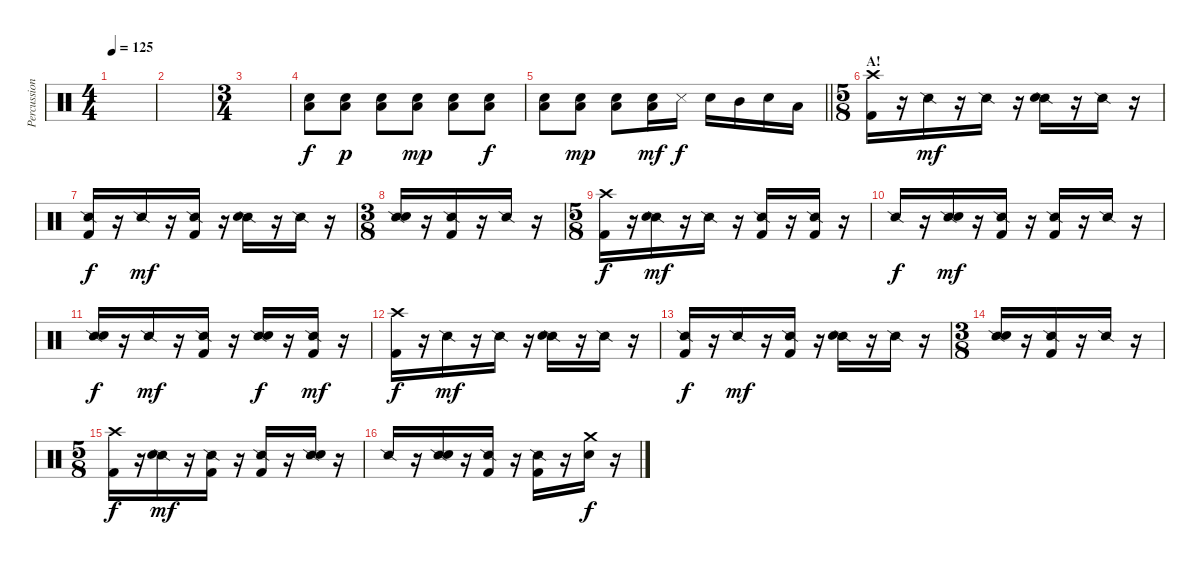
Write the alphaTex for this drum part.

\track ("Percussion" "Percussion") {instrument percussion}
\staff {score}
\articulation defaults
\ts (4 4)
\tempo 125
\clef neutral
\ks c
|
|
\ts (3 4)
|
("Low Tom (hit)" "Snare (hit) 2").8 ("Low Tom (hit)" "Snare (hit) 2").8{dy p} ("Low Tom (hit)" "Snare (hit) 2").8 ("Low Tom (hit)" "Snare (hit) 2").8{dy mp} ("Low Tom (hit)" "Snare (hit) 2").8 ("Low Tom (hit)" "Snare (hit) 2").8{dy f} |
\barLineRight lightlight
("Low Tom (hit)" "Snare (hit) 2").8 ("Low Tom (hit)" "Snare (hit) 2").8{dy mp} ("Low Tom (hit)" "Snare (hit) 2").8 ("Low Tom (hit)" "Snare (hit) 2").16{dy mf} "Metronome (hit)".16{dy f} "Snare (hit) 2".16 "Mid Tom (hit)".16 "Snare (hit) 2".16 "Low Tom (hit)".16 |
\ts (5 8)
\section ("" "A!")
("Crash high (hit)" "Kick (hit) 2").16 r.16 "Snare (side stick) 2".16{dy mf} r.16 "Snare (side stick) 2".16 r.16 ("Snare (side stick) 2" "Snare (hit) 2").16 r.16 "Snare (side stick) 2".16 r.16 |
("Snare (side stick) 2" "Kick (hit) 2").16{dy f} r.16 "Snare (side stick) 2".16{dy mf} r.16 ("Snare (side stick) 2" "Kick (hit) 2").16 r.16 ("Snare (side stick) 2" "Snare (hit) 2").16 r.16 "Snare (side stick) 2".16 r.16 |
\ts (3 8)
("Snare (side stick) 2" "Snare (hit) 2").16 r.16 ("Snare (side stick) 2" "Kick (hit) 2").16 r.16 "Snare (side stick) 2".16 r.16 |
\ts (5 8)
("Crash high (hit)" "Kick (hit) 2").16{dy f} r.16 ("Snare (side stick) 2" "Snare (hit) 2").16{dy mf} r.16 "Snare (side stick) 2".16 r.16 ("Snare (side stick) 2" "Kick (hit) 2").16 r.16 ("Snare (side stick) 2" "Kick (hit) 2").16 r.16 |
"Snare (side stick) 2".16{dy f} r.16 ("Snare (side stick) 2" "Snare (hit) 2").16{dy mf} r.16 ("Snare (side stick) 2" "Kick (hit) 2").16 r.16 ("Snare (side stick) 2" "Kick (hit) 2").16 r.16 "Snare (side stick) 2".16 r.16 |
("Snare (side stick) 2" "Snare (hit) 2").16{dy f} r.16 "Snare (side stick) 2".16{dy mf} r.16 ("Snare (side stick) 2" "Kick (hit) 2").16 r.16 ("Snare (side stick) 2" "Snare (hit) 2").16{dy f} r.16 ("Snare (side stick) 2" "Kick (hit) 2").16{dy mf} r.16 |
("Crash high (hit)" "Kick (hit) 2").16{dy f} r.16 "Snare (side stick) 2".16{dy mf} r.16 "Snare (side stick) 2".16 r.16 ("Snare (side stick) 2" "Snare (hit) 2").16 r.16 "Snare (side stick) 2".16 r.16 |
("Snare (side stick) 2" "Kick (hit) 2").16{dy f} r.16 "Snare (side stick) 2".16{dy mf} r.16 ("Snare (side stick) 2" "Kick (hit) 2").16 r.16 ("Snare (side stick) 2" "Snare (hit) 2").16 r.16 "Snare (side stick) 2".16 r.16 |
\ts (3 8)
("Snare (side stick) 2" "Snare (hit) 2").16 r.16 ("Snare (side stick) 2" "Kick (hit) 2").16 r.16 "Snare (side stick) 2".16 r.16 |
\ts (5 8)
("Crash high (hit)" "Kick (hit) 2").16{dy f} r.16 ("Snare (side stick) 2" "Snare (hit) 2").16{dy mf} r.16 ("Snare (side stick) 2" "Kick (hit) 2").16 r.16 ("Snare (side stick) 2" "Kick (hit) 2").16 r.16 ("Snare (side stick) 2" "Snare (hit) 2").16 r.16 |
"Snare (side stick) 2".16 r.16 ("Snare (side stick) 2" "Snare (hit) 2").16 r.16 ("Snare (side stick) 2" "Kick (hit) 2").16 r.16 ("Snare (side stick) 2" "Kick (hit) 2").16 r.16 ("Crash medium (hit)" "Snare (hit) 2").16{dy f} r.16
